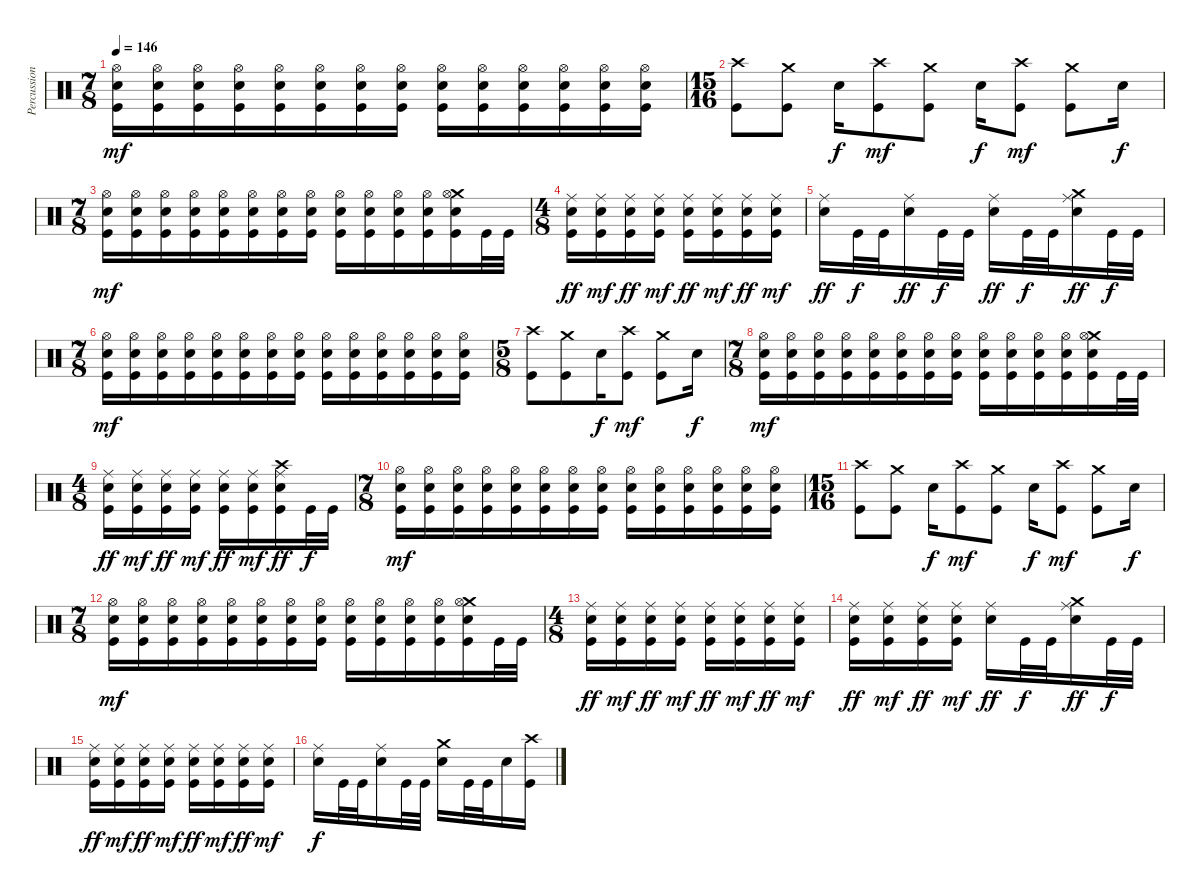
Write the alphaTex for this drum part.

\track ("Percussion" "Percussion") {instrument percussion}
\staff {score}
\articulation defaults
\ts (7 8)
\tempo 146
\clef neutral
\ks c
("Hi-Hat (open)" "Electric Snare (hit)" "Kick (hit)").16{dy mf} ("Hi-Hat (open)" "Electric Snare (hit)" "Kick (hit)").16 ("Hi-Hat (open)" "Electric Snare (hit)" "Kick (hit)").16 ("Hi-Hat (open)" "Electric Snare (hit)" "Kick (hit)").16 ("Hi-Hat (open)" "Electric Snare (hit)" "Kick (hit)").16 ("Hi-Hat (open)" "Electric Snare (hit)" "Kick (hit)").16 ("Hi-Hat (open)" "Electric Snare (hit)" "Kick (hit)").16 ("Hi-Hat (open)" "Electric Snare (hit)" "Kick (hit)").16 ("Hi-Hat (open)" "Electric Snare (hit)" "Kick (hit)").16 ("Hi-Hat (open)" "Electric Snare (hit)" "Kick (hit)").16 ("Hi-Hat (open)" "Electric Snare (hit)" "Kick (hit)").16 ("Hi-Hat (open)" "Electric Snare (hit)" "Kick (hit)").16 ("Hi-Hat (open)" "Electric Snare (hit)" "Kick (hit)").16 ("Hi-Hat (open)" "Electric Snare (hit)" "Kick (hit)").16 |
\ts (15 16)
("Crash high (hit)" "Kick (hit)").8 ("Crash medium (hit)" "Kick (hit)").8 "Electric Snare (hit)".16{dy f} ("Crash high (hit)" "Kick (hit)").8{dy mf} ("Crash medium (hit)" "Kick (hit)").8 "Electric Snare (hit)".16{dy f} ("Crash high (hit)" "Kick (hit)").8{dy mf} ("Crash medium (hit)" "Kick (hit)").8 "Electric Snare (hit)".16{dy f} |
\ts (7 8)
("Hi-Hat (open)" "Electric Snare (hit)" "Kick (hit)").16{dy mf} ("Hi-Hat (open)" "Electric Snare (hit)" "Kick (hit)").16 ("Hi-Hat (open)" "Electric Snare (hit)" "Kick (hit)").16 ("Hi-Hat (open)" "Electric Snare (hit)" "Kick (hit)").16 ("Hi-Hat (open)" "Electric Snare (hit)" "Kick (hit)").16 ("Hi-Hat (open)" "Electric Snare (hit)" "Kick (hit)").16 ("Hi-Hat (open)" "Electric Snare (hit)" "Kick (hit)").16 ("Hi-Hat (open)" "Electric Snare (hit)" "Kick (hit)").16 ("Hi-Hat (open)" "Electric Snare (hit)" "Kick (hit)").16 ("Hi-Hat (open)" "Electric Snare (hit)" "Kick (hit)").16 ("Hi-Hat (open)" "Electric Snare (hit)" "Kick (hit)").16 ("Hi-Hat (open)" "Electric Snare (hit)" "Kick (hit)").16 ("Crash medium (hit)" "Hi-Hat (open)" "Electric Snare (hit)" "Kick (hit)").16 "Kick (hit)".32 "Kick (hit)".32 |
\ts (4 8)
("Ride (middle)" "Electric Snare (hit)" "Kick (hit)").16{dy ff} ("Ride (middle)" "Electric Snare (hit)" "Kick (hit)").16{dy mf} ("Ride (middle)" "Electric Snare (hit)" "Kick (hit)").16{dy ff} ("Ride (middle)" "Electric Snare (hit)" "Kick (hit)").16{dy mf} ("Ride (middle)" "Electric Snare (hit)" "Kick (hit)").16{dy ff} ("Ride (middle)" "Electric Snare (hit)" "Kick (hit)").16{dy mf} ("Ride (middle)" "Electric Snare (hit)" "Kick (hit)").16{dy ff} ("Ride (middle)" "Electric Snare (hit)" "Kick (hit)").16{dy mf} |
("Ride (middle)" "Electric Snare (hit)").16{dy ff} "Kick (hit)".32{dy f} "Kick (hit)".32 ("Ride (middle)" "Electric Snare (hit)").16{dy ff} "Kick (hit)".32{dy f} "Kick (hit)".32 ("Ride (middle)" "Electric Snare (hit)").16{dy ff} "Kick (hit)".32{dy f} "Kick (hit)".32 ("Crash medium (hit)" "Ride (middle)" "Electric Snare (hit)").16{dy ff} "Kick (hit)".32{dy f} "Kick (hit)".32 |
\ts (7 8)
("Hi-Hat (open)" "Electric Snare (hit)" "Kick (hit)").16{dy mf} ("Hi-Hat (open)" "Electric Snare (hit)" "Kick (hit)").16 ("Hi-Hat (open)" "Electric Snare (hit)" "Kick (hit)").16 ("Hi-Hat (open)" "Electric Snare (hit)" "Kick (hit)").16 ("Hi-Hat (open)" "Electric Snare (hit)" "Kick (hit)").16 ("Hi-Hat (open)" "Electric Snare (hit)" "Kick (hit)").16 ("Hi-Hat (open)" "Electric Snare (hit)" "Kick (hit)").16 ("Hi-Hat (open)" "Electric Snare (hit)" "Kick (hit)").16 ("Hi-Hat (open)" "Electric Snare (hit)" "Kick (hit)").16 ("Hi-Hat (open)" "Electric Snare (hit)" "Kick (hit)").16 ("Hi-Hat (open)" "Electric Snare (hit)" "Kick (hit)").16 ("Hi-Hat (open)" "Electric Snare (hit)" "Kick (hit)").16 ("Hi-Hat (open)" "Electric Snare (hit)" "Kick (hit)").16 ("Hi-Hat (open)" "Electric Snare (hit)" "Kick (hit)").16 |
\ts (5 8)
("Crash high (hit)" "Kick (hit)").8 ("Crash medium (hit)" "Kick (hit)").8 "Electric Snare (hit)".16{dy f} ("Crash high (hit)" "Kick (hit)").8{dy mf} ("Crash medium (hit)" "Kick (hit)").8 "Electric Snare (hit)".16{dy f} |
\ts (7 8)
("Hi-Hat (open)" "Electric Snare (hit)" "Kick (hit)").16{dy mf} ("Hi-Hat (open)" "Electric Snare (hit)" "Kick (hit)").16 ("Hi-Hat (open)" "Electric Snare (hit)" "Kick (hit)").16 ("Hi-Hat (open)" "Electric Snare (hit)" "Kick (hit)").16 ("Hi-Hat (open)" "Electric Snare (hit)" "Kick (hit)").16 ("Hi-Hat (open)" "Electric Snare (hit)" "Kick (hit)").16 ("Hi-Hat (open)" "Electric Snare (hit)" "Kick (hit)").16 ("Hi-Hat (open)" "Electric Snare (hit)" "Kick (hit)").16 ("Hi-Hat (open)" "Electric Snare (hit)" "Kick (hit)").16 ("Hi-Hat (open)" "Electric Snare (hit)" "Kick (hit)").16 ("Hi-Hat (open)" "Electric Snare (hit)" "Kick (hit)").16 ("Hi-Hat (open)" "Electric Snare (hit)" "Kick (hit)").16 ("Crash medium (hit)" "Hi-Hat (open)" "Electric Snare (hit)" "Kick (hit)").16 "Kick (hit)".32 "Kick (hit)".32 |
\ts (4 8)
("Ride (middle)" "Electric Snare (hit)" "Kick (hit)").16{dy ff} ("Ride (middle)" "Electric Snare (hit)" "Kick (hit)").16{dy mf} ("Ride (middle)" "Electric Snare (hit)" "Kick (hit)").16{dy ff} ("Ride (middle)" "Electric Snare (hit)" "Kick (hit)").16{dy mf} ("Ride (middle)" "Electric Snare (hit)" "Kick (hit)").16{dy ff} ("Ride (middle)" "Electric Snare (hit)" "Kick (hit)").16{dy mf} ("Crash high (hit)" "Ride (middle)" "Electric Snare (hit)" "Kick (hit)").16{dy ff} "Kick (hit)".32{dy f} "Kick (hit)".32 |
\ts (7 8)
("Hi-Hat (open)" "Electric Snare (hit)" "Kick (hit)").16{dy mf} ("Hi-Hat (open)" "Electric Snare (hit)" "Kick (hit)").16 ("Hi-Hat (open)" "Electric Snare (hit)" "Kick (hit)").16 ("Hi-Hat (open)" "Electric Snare (hit)" "Kick (hit)").16 ("Hi-Hat (open)" "Electric Snare (hit)" "Kick (hit)").16 ("Hi-Hat (open)" "Electric Snare (hit)" "Kick (hit)").16 ("Hi-Hat (open)" "Electric Snare (hit)" "Kick (hit)").16 ("Hi-Hat (open)" "Electric Snare (hit)" "Kick (hit)").16 ("Hi-Hat (open)" "Electric Snare (hit)" "Kick (hit)").16 ("Hi-Hat (open)" "Electric Snare (hit)" "Kick (hit)").16 ("Hi-Hat (open)" "Electric Snare (hit)" "Kick (hit)").16 ("Hi-Hat (open)" "Electric Snare (hit)" "Kick (hit)").16 ("Hi-Hat (open)" "Electric Snare (hit)" "Kick (hit)").16 ("Hi-Hat (open)" "Electric Snare (hit)" "Kick (hit)").16 |
\ts (15 16)
("Crash high (hit)" "Kick (hit)").8 ("Crash medium (hit)" "Kick (hit)").8 "Electric Snare (hit)".16{dy f} ("Crash high (hit)" "Kick (hit)").8{dy mf} ("Crash medium (hit)" "Kick (hit)").8 "Electric Snare (hit)".16{dy f} ("Crash high (hit)" "Kick (hit)").8{dy mf} ("Crash medium (hit)" "Kick (hit)").8 "Electric Snare (hit)".16{dy f} |
\ts (7 8)
("Hi-Hat (open)" "Electric Snare (hit)" "Kick (hit)").16{dy mf} ("Hi-Hat (open)" "Electric Snare (hit)" "Kick (hit)").16 ("Hi-Hat (open)" "Electric Snare (hit)" "Kick (hit)").16 ("Hi-Hat (open)" "Electric Snare (hit)" "Kick (hit)").16 ("Hi-Hat (open)" "Electric Snare (hit)" "Kick (hit)").16 ("Hi-Hat (open)" "Electric Snare (hit)" "Kick (hit)").16 ("Hi-Hat (open)" "Electric Snare (hit)" "Kick (hit)").16 ("Hi-Hat (open)" "Electric Snare (hit)" "Kick (hit)").16 ("Hi-Hat (open)" "Electric Snare (hit)" "Kick (hit)").16 ("Hi-Hat (open)" "Electric Snare (hit)" "Kick (hit)").16 ("Hi-Hat (open)" "Electric Snare (hit)" "Kick (hit)").16 ("Hi-Hat (open)" "Electric Snare (hit)" "Kick (hit)").16 ("Crash medium (hit)" "Hi-Hat (open)" "Electric Snare (hit)" "Kick (hit)").16 "Kick (hit)".32 "Kick (hit)".32 |
\ts (4 8)
("Ride (middle)" "Electric Snare (hit)" "Kick (hit)").16{dy ff} ("Ride (middle)" "Electric Snare (hit)" "Kick (hit)").16{dy mf} ("Ride (middle)" "Electric Snare (hit)" "Kick (hit)").16{dy ff} ("Ride (middle)" "Electric Snare (hit)" "Kick (hit)").16{dy mf} ("Ride (middle)" "Electric Snare (hit)" "Kick (hit)").16{dy ff} ("Ride (middle)" "Electric Snare (hit)" "Kick (hit)").16{dy mf} ("Ride (middle)" "Electric Snare (hit)" "Kick (hit)").16{dy ff} ("Ride (middle)" "Electric Snare (hit)" "Kick (hit)").16{dy mf} |
("Ride (middle)" "Electric Snare (hit)" "Kick (hit)").16{dy ff} ("Ride (middle)" "Electric Snare (hit)" "Kick (hit)").16{dy mf} ("Ride (middle)" "Electric Snare (hit)" "Kick (hit)").16{dy ff} ("Ride (middle)" "Electric Snare (hit)" "Kick (hit)").16{dy mf} ("Ride (middle)" "Electric Snare (hit)").16{dy ff} "Kick (hit)".32{dy f} "Kick (hit)".32 ("Crash medium (hit)" "Ride (middle)" "Electric Snare (hit)").16{dy ff} "Kick (hit)".32{dy f} "Kick (hit)".32 |
("Ride (middle)" "Electric Snare (hit)" "Kick (hit)").16{dy ff} ("Ride (middle)" "Electric Snare (hit)" "Kick (hit)").16{dy mf} ("Ride (middle)" "Electric Snare (hit)" "Kick (hit)").16{dy ff} ("Ride (middle)" "Electric Snare (hit)" "Kick (hit)").16{dy mf} ("Ride (middle)" "Electric Snare (hit)" "Kick (hit)").16{dy ff} ("Ride (middle)" "Electric Snare (hit)" "Kick (hit)").16{dy mf} ("Ride (middle)" "Electric Snare (hit)" "Kick (hit)").16{dy ff} ("Ride (middle)" "Electric Snare (hit)" "Kick (hit)").16{dy mf} |
("Ride (middle)" "Electric Snare (hit)").16{dy f} "Kick (hit)".32 "Kick (hit)".32 ("Ride (middle)" "Electric Snare (hit)").16 "Kick (hit)".32 "Kick (hit)".32 ("Crash medium (hit)" "Electric Snare (hit)").16 "Kick (hit)".32 "Kick (hit)".32 "Electric Snare (hit)".16 ("Crash high (hit)" "Kick (hit)").16
